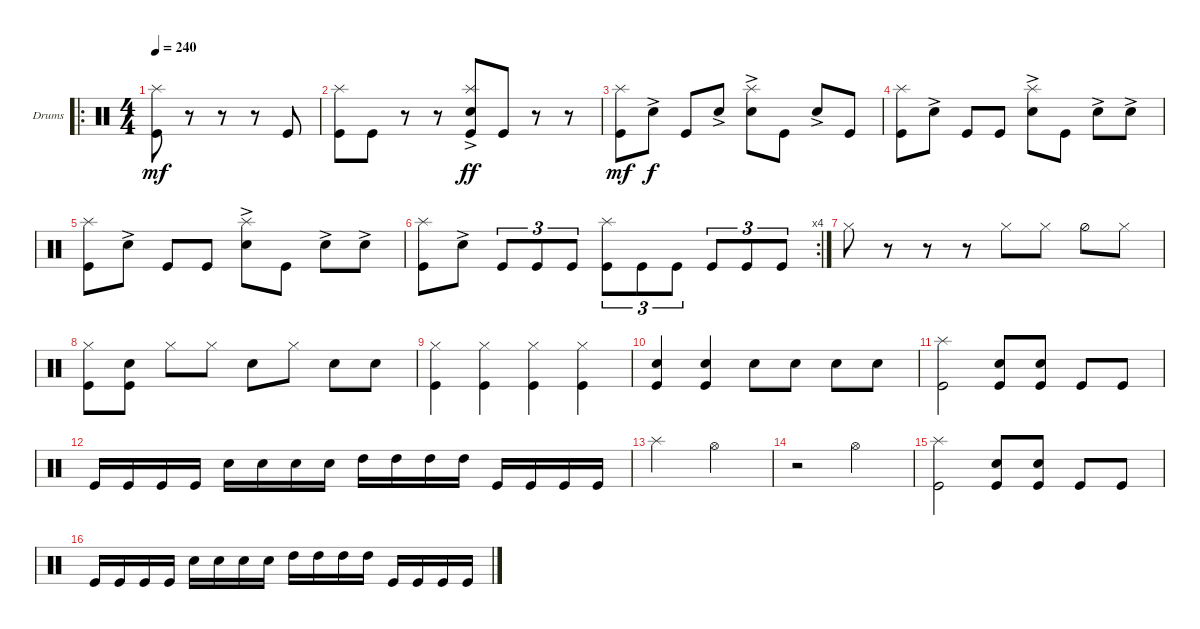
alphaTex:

\defaultSystemsLayout 4
\bracketExtendMode groupsimilarinstruments
\firstSystemTrackNameOrientation horizontal
\otherSystemsTrackNameOrientation horizontal
\track ("Drumkit" "Drums") {instrument percussion}
\staff {score}
\articulation defaults
\ro
\ts (4 4)
\tempo 240
\clef neutral
\scale
0.365591
\ks c
("Kick (hit)" "Splash (hit)").8{dy mf} r.8 r.8 r.8 "Kick (hit)".8 |
\scale
0.333333 ("Kick (hit)" "Splash (hit)").8 "Kick (hit)".8 r.8 r.8 ("Kick (hit)" "Splash (hit)" "Snare (hit) 2"{ac}).8{dy ff} "Kick (hit)".8 r.8 r.8 |
\scale
0.333333 ("Kick (hit)" "Splash (hit)").8{dy mf} "Snare (hit) 2"{ac}.8{dy f} "Kick (hit)".8 "Snare (hit) 2"{ac}.8 ("Splash (hit)" "Snare (hit) 2"{ac}).8 "Kick (hit)".8 "Snare (hit) 2"{ac}.8 "Kick (hit)".8 |
\scale
0.333333 ("Kick (hit)" "Splash (hit)").8 "Snare (hit) 2"{ac}.8 "Kick (hit)".8 "Kick (hit)".8 ("Splash (hit)" "Snare (hit) 2"{ac}).8 "Kick (hit)".8 "Snare (hit) 2"{ac}.8 "Snare (hit) 2"{ac}.8 |
("Kick (hit)" "Splash (hit)").8 "Snare (hit) 2"{ac}.8 "Kick (hit)".8 "Kick (hit)".8 ("Splash (hit)" "Snare (hit) 2"{ac}).8 "Kick (hit)".8 "Snare (hit) 2"{ac}.8 "Snare (hit) 2"{ac}.8 |
\rc 4
("Kick (hit)" "Splash (hit)").8 "Snare (hit) 2"{ac}.8 "Kick (hit)".8{tu (3 2)} "Kick (hit)".8{tu (3 2)} "Kick (hit)".8{tu (3 2)} ("Kick (hit)" "Splash (hit)").8{tu (3 2)} "Kick (hit)".8{tu (3 2)} "Kick (hit)".8{tu (3 2)} "Kick (hit)".8{tu (3 2)} "Kick (hit)".8{tu (3 2)} "Kick (hit)".8{tu (3 2)} |
"Hi-Hat (closed)".8 r.8 r.8 r.8 "Hi-Hat (closed)".8 "Hi-Hat (closed)".8 "Hi-Hat (half)".8 "Hi-Hat (closed)".8 |
("Hi-Hat (closed)" "Kick (hit)").8 ("Kick (hit)" "Snare (hit) 2").8 "Hi-Hat (closed)".8 "Hi-Hat (closed)".8 "Snare (hit) 2".8 "Hi-Hat (closed)".8 "Snare (hit) 2".8 "Snare (hit) 2".8 |
("Hi-Hat (closed)" "Kick (hit)").4 ("Hi-Hat (closed)" "Kick (hit)").4 ("Hi-Hat (closed)" "Kick (hit)").4 ("Hi-Hat (closed)" "Kick (hit)").4 |
("Snare (hit) 2" "Kick (hit)").4 ("Snare (hit) 2" "Kick (hit)").4 "Snare (hit) 2".8 "Snare (hit) 2".8 "Snare (hit) 2".8 "Snare (hit) 2".8 |
("Splash (hit)" "Kick (hit)").2 ("Kick (hit)" "Snare (hit) 2").8 ("Kick (hit)" "Snare (hit) 2").8 "Kick (hit)".8 "Kick (hit)".8 |
"Kick (hit)".16 "Kick (hit)".16 "Kick (hit)".16 "Kick (hit)".16 "Snare (hit) 2".16 "Snare (hit) 2".16 "Snare (hit) 2".16 "Snare (hit) 2".16 "High Tom (hit)".16 "High Tom (hit)".16 "High Tom (hit)".16 "High Tom (hit)".16 "Kick (hit)".16 "Kick (hit)".16 "Kick (hit)".16 "Kick (hit)".16 |
"Splash (hit)".2 "Hi-Hat (open)".2 |
r.2 "Hi-Hat (open)".2 |
("Splash (hit)" "Kick (hit)").2 ("Kick (hit)" "Snare (hit) 2").8 ("Kick (hit)" "Snare (hit) 2").8 "Kick (hit)".8 "Kick (hit)".8 |
"Kick (hit)".16 "Kick (hit)".16 "Kick (hit)".16 "Kick (hit)".16 "Snare (hit) 2".16 "Snare (hit) 2".16 "Snare (hit) 2".16 "Snare (hit) 2".16 "High Tom (hit)".16 "High Tom (hit)".16 "High Tom (hit)".16 "High Tom (hit)".16 "Kick (hit)".16 "Kick (hit)".16 "Kick (hit)".16 "Kick (hit)".16
